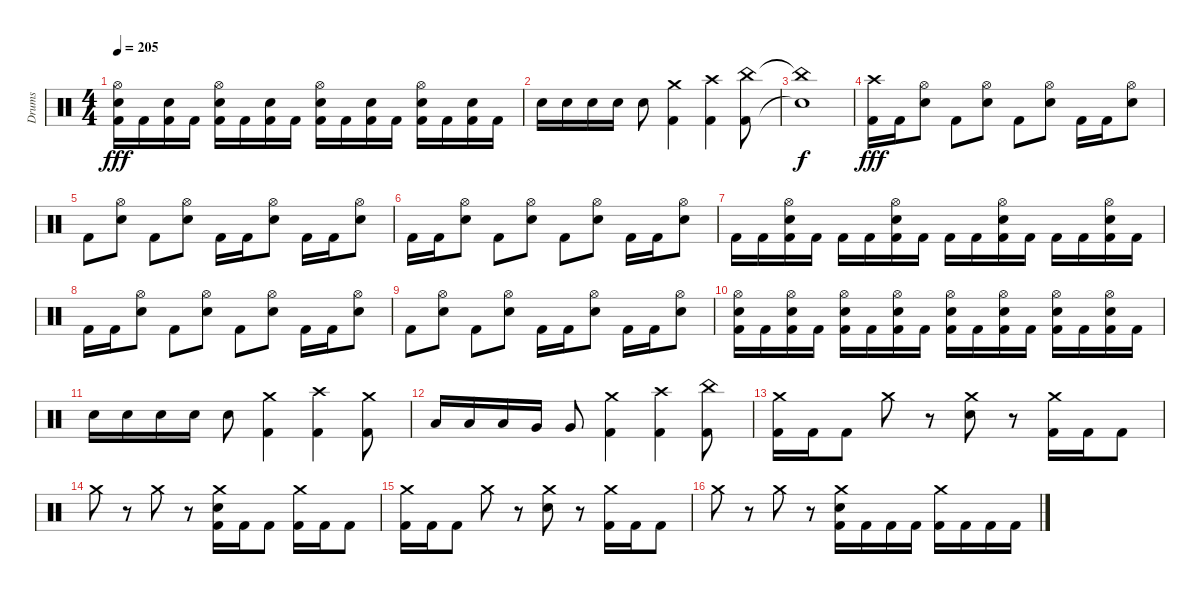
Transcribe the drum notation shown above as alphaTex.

\track ("Drums" "Drums") {instrument percussion}
\staff {score}
\articulation defaults
\ts (4 4)
\tempo 205
\clef neutral
\ks c
("Hi-Hat (open)" "Snare (hit) 2" "Kick (hit) 2").16{dy fff} "Kick (hit) 2".16 ("Snare (hit) 2" "Kick (hit) 2").16 "Kick (hit) 2".16 ("Hi-Hat (open)" "Snare (hit) 2" "Kick (hit) 2").16 "Kick (hit) 2".16 ("Snare (hit) 2" "Kick (hit) 2").16 "Kick (hit) 2".16 ("Hi-Hat (open)" "Snare (hit) 2" "Kick (hit) 2").16 "Kick (hit) 2".16 ("Snare (hit) 2" "Kick (hit) 2").16 "Kick (hit) 2".16 ("Hi-Hat (open)" "Snare (hit) 2" "Kick (hit) 2").16 "Kick (hit) 2".16 ("Snare (hit) 2" "Kick (hit) 2").16 "Kick (hit) 2".16 |
"Electric Snare (hit)".16 "Electric Snare (hit)".16 "Electric Snare (hit)".16 "Electric Snare (hit)".16 "Electric Snare (hit)".8 ("Crash medium (hit)" "Kick (hit) 2").4 ("Crash high (hit)" "Kick (hit) 2").4 ("China (hit)" "Kick (hit) 2").8 |
("China (hit)"{t} "Snare (hit)"{t}).1{dy f} |
("Crash high (hit)" "Kick (hit) 2").16{dy fff} "Kick (hit) 2".16 ("Hi-Hat (open)" "Snare (hit) 2").8 "Kick (hit) 2".8 ("Hi-Hat (open)" "Snare (hit) 2").8 "Kick (hit) 2".8 ("Hi-Hat (open)" "Snare (hit) 2").8 "Kick (hit) 2".16 "Kick (hit) 2".16 ("Hi-Hat (open)" "Snare (hit) 2").8 |
"Kick (hit) 2".8 ("Hi-Hat (open)" "Snare (hit) 2").8 "Kick (hit) 2".8 ("Hi-Hat (open)" "Snare (hit) 2").8 "Kick (hit) 2".16 "Kick (hit) 2".16 ("Hi-Hat (open)" "Snare (hit) 2").8 "Kick (hit) 2".16 "Kick (hit) 2".16 ("Hi-Hat (open)" "Snare (hit) 2").8 |
"Kick (hit) 2".16 "Kick (hit) 2".16 ("Hi-Hat (open)" "Snare (hit) 2").8 "Kick (hit) 2".8 ("Hi-Hat (open)" "Snare (hit) 2").8 "Kick (hit) 2".8 ("Hi-Hat (open)" "Snare (hit) 2").8 "Kick (hit) 2".16 "Kick (hit) 2".16 ("Hi-Hat (open)" "Snare (hit) 2").8 |
"Kick (hit) 2".16 "Kick (hit) 2".16 ("Hi-Hat (open)" "Snare (hit) 2" "Kick (hit) 2").16 "Kick (hit) 2".16 "Kick (hit) 2".16 "Kick (hit) 2".16 ("Hi-Hat (open)" "Snare (hit) 2" "Kick (hit) 2").16 "Kick (hit) 2".16 "Kick (hit) 2".16 "Kick (hit) 2".16 ("Hi-Hat (open)" "Snare (hit) 2" "Kick (hit) 2").16 "Kick (hit) 2".16 "Kick (hit) 2".16 "Kick (hit) 2".16 ("Hi-Hat (open)" "Snare (hit) 2" "Kick (hit) 2").16 "Kick (hit) 2".16 |
"Kick (hit) 2".16 "Kick (hit) 2".16 ("Hi-Hat (open)" "Snare (hit) 2").8 "Kick (hit) 2".8 ("Hi-Hat (open)" "Snare (hit) 2").8 "Kick (hit) 2".8 ("Hi-Hat (open)" "Snare (hit) 2").8 "Kick (hit) 2".16 "Kick (hit) 2".16 ("Hi-Hat (open)" "Snare (hit) 2").8 |
"Kick (hit) 2".8 ("Hi-Hat (open)" "Snare (hit) 2").8 "Kick (hit) 2".8 ("Hi-Hat (open)" "Snare (hit) 2").8 "Kick (hit) 2".16 "Kick (hit) 2".16 ("Hi-Hat (open)" "Snare (hit) 2").8 "Kick (hit) 2".16 "Kick (hit) 2".16 ("Hi-Hat (open)" "Snare (hit) 2").8 |
("Hi-Hat (open)" "Snare (hit) 2" "Kick (hit) 2").16 "Kick (hit) 2".16 ("Hi-Hat (open)" "Snare (hit) 2" "Kick (hit) 2").16 "Kick (hit) 2".16 ("Hi-Hat (open)" "Snare (hit) 2" "Kick (hit) 2").16 "Kick (hit) 2".16 ("Hi-Hat (open)" "Snare (hit) 2" "Kick (hit) 2").16 "Kick (hit) 2".16 ("Hi-Hat (open)" "Snare (hit) 2" "Kick (hit) 2").16 "Kick (hit) 2".16 ("Hi-Hat (open)" "Snare (hit) 2" "Kick (hit) 2").16 "Kick (hit) 2".16 ("Hi-Hat (open)" "Snare (hit) 2" "Kick (hit) 2").16 "Kick (hit) 2".16 ("Hi-Hat (open)" "Snare (hit) 2" "Kick (hit) 2").16 "Kick (hit) 2".16 |
"Electric Snare (hit)".16 "Electric Snare (hit)".16 "Electric Snare (hit)".16 "Electric Snare (hit)".16 "Electric Snare (hit)".8 ("Crash medium (hit)" "Kick (hit) 2").4 ("Crash high (hit)" "Kick (hit) 2").4 ("Crash medium (hit)" "Kick (hit) 2").8 |
"Low Tom (hit)".16 "Low Tom (hit)".16 "Low Tom (hit)".16 "Very Low Tom (hit)".16 "Very Low Tom (hit)".8 ("Crash medium (hit)" "Kick (hit) 2").4 ("Crash high (hit)" "Kick (hit) 2").4 ("China (hit)" "Kick (hit) 2").8 |
("Crash medium (hit)" "Kick (hit) 2").16 "Kick (hit) 2".16 "Kick (hit) 2".8 "Crash medium (hit)".8 r.8 ("Crash medium (hit)" "Snare (hit) 2").8 r.8 ("Crash medium (hit)" "Kick (hit) 2").16 "Kick (hit) 2".16 "Kick (hit) 2".8 |
"Crash medium (hit)".8 r.8 "Crash medium (hit)".8 r.8 ("Crash medium (hit)" "Snare (hit) 2" "Kick (hit) 2").16 "Kick (hit) 2".16 "Kick (hit) 2".8 ("Crash medium (hit)" "Kick (hit) 2").16 "Kick (hit) 2".16 "Kick (hit) 2".8 |
("Crash medium (hit)" "Kick (hit) 2").16 "Kick (hit) 2".16 "Kick (hit) 2".8 "Crash medium (hit)".8 r.8 ("Crash medium (hit)" "Snare (hit) 2").8 r.8 ("Crash medium (hit)" "Kick (hit) 2").16 "Kick (hit) 2".16 "Kick (hit) 2".8 |
"Crash medium (hit)".8 r.8 "Crash medium (hit)".8 r.8 ("Crash medium (hit)" "Snare (hit) 2" "Kick (hit) 2").16 "Kick (hit) 2".16 "Kick (hit) 2".16 "Kick (hit) 2".16 ("Crash medium (hit)" "Kick (hit) 2").16 "Kick (hit) 2".16 "Kick (hit) 2".16 "Kick (hit) 2".16
